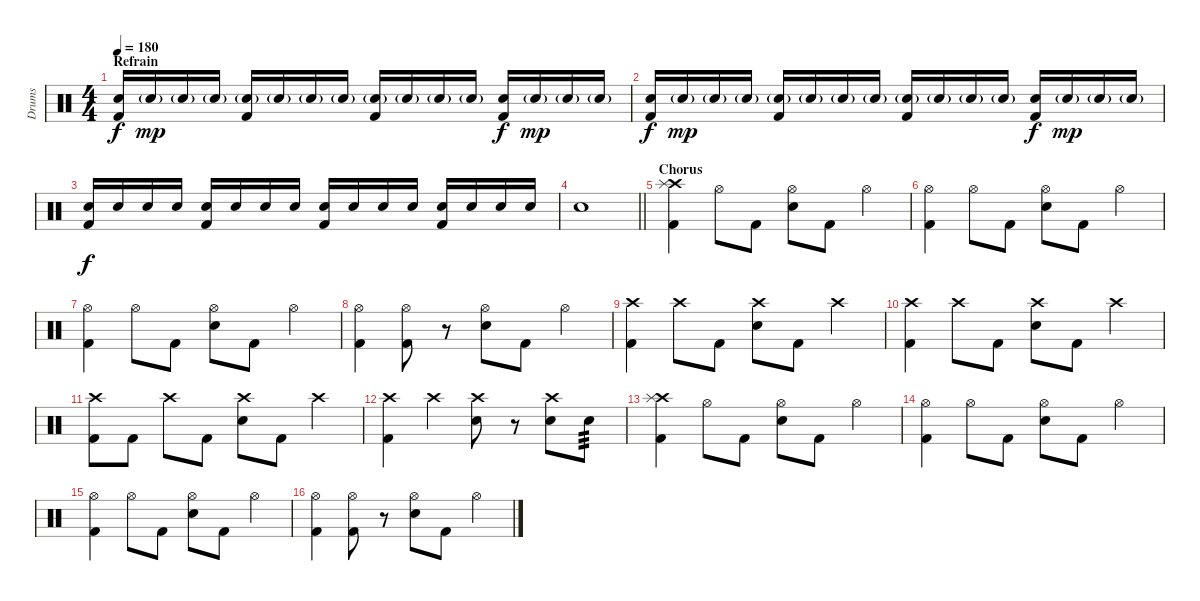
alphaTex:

\track ("Drums" "Drums") {instrument percussion}
\staff {score}
\articulation defaults
\ts (4 4)
\section ("" "Refrain")
\tempo 180
\clef neutral
\ks c
("Electric Snare (hit)" "Kick (hit) 2").16{dy f} "Electric Snare (hit)"{g}.16{dy mp} "Electric Snare (hit)"{g}.16 "Electric Snare (hit)"{g}.16 ("Electric Snare (hit)"{g} "Kick (hit) 2").16 "Electric Snare (hit)"{g}.16 "Electric Snare (hit)"{g}.16 "Electric Snare (hit)"{g}.16 ("Electric Snare (hit)"{g} "Kick (hit) 2").16 "Electric Snare (hit)"{g}.16 "Electric Snare (hit)"{g}.16 "Electric Snare (hit)"{g}.16 ("Electric Snare (hit)" "Kick (hit) 2").16{dy f} "Electric Snare (hit)"{g}.16{dy mp} "Electric Snare (hit)"{g}.16 "Electric Snare (hit)"{g}.16 |
("Electric Snare (hit)" "Kick (hit) 2").16{dy f} "Electric Snare (hit)"{g}.16{dy mp} "Electric Snare (hit)"{g}.16 "Electric Snare (hit)"{g}.16 ("Electric Snare (hit)"{g} "Kick (hit) 2").16 "Electric Snare (hit)"{g}.16 "Electric Snare (hit)"{g}.16 "Electric Snare (hit)"{g}.16 ("Electric Snare (hit)"{g} "Kick (hit) 2").16 "Electric Snare (hit)"{g}.16 "Electric Snare (hit)"{g}.16 "Electric Snare (hit)"{g}.16 ("Electric Snare (hit)" "Kick (hit) 2").16{dy f} "Electric Snare (hit)"{g}.16{dy mp} "Electric Snare (hit)"{g}.16 "Electric Snare (hit)"{g}.16 |
("Electric Snare (hit)" "Kick (hit) 2").16{dy f} "Electric Snare (hit)".16 "Electric Snare (hit)".16 "Electric Snare (hit)".16 ("Electric Snare (hit)" "Kick (hit) 2").16 "Electric Snare (hit)".16 "Electric Snare (hit)".16 "Electric Snare (hit)".16 ("Electric Snare (hit)" "Kick (hit) 2").16 "Electric Snare (hit)".16 "Electric Snare (hit)".16 "Electric Snare (hit)".16 ("Electric Snare (hit)" "Kick (hit) 2").16 "Electric Snare (hit)".16 "Electric Snare (hit)".16 "Electric Snare (hit)".16 |
\barLineRight lightlight "Electric Snare (hit)".1
|
\section ("" "Chorus")
("Crash high (hit)" "Splash (hit)" "Kick (hit) 2").4 "Hi-Hat (open)".8 "Kick (hit) 2".8 ("Electric Snare (hit)" "Hi-Hat (open)").8 "Kick (hit) 2".8 "Hi-Hat (open)".4 |
("Hi-Hat (open)" "Kick (hit) 2").4 "Hi-Hat (open)".8 "Kick (hit) 2".8 ("Electric Snare (hit)" "Hi-Hat (open)").8 "Kick (hit) 2".8 "Hi-Hat (open)".4 |
("Hi-Hat (open)" "Kick (hit) 2").4 "Hi-Hat (open)".8 "Kick (hit) 2".8 ("Electric Snare (hit)" "Hi-Hat (open)").8 "Kick (hit) 2".8 "Hi-Hat (open)".4 |
("Hi-Hat (open)" "Kick (hit) 2").4 ("Hi-Hat (open)" "Kick (hit) 2").8 r.8 ("Electric Snare (hit)" "Hi-Hat (open)").8 "Kick (hit) 2".8 "Hi-Hat (open)".4 |
("Crash high (hit)" "Kick (hit) 2").4 "Crash high (hit)".8 "Kick (hit) 2".8 ("Electric Snare (hit)" "Crash high (hit)").8 "Kick (hit) 2".8 "Crash high (hit)".4 |
("Crash high (hit)" "Kick (hit) 2").4 "Crash high (hit)".8 "Kick (hit) 2".8 ("Electric Snare (hit)" "Crash high (hit)").8 "Kick (hit) 2".8 "Crash high (hit)".4 |
("Crash high (hit)" "Kick (hit) 2").8 "Kick (hit) 2".8 "Crash high (hit)".8 "Kick (hit) 2".8 ("Electric Snare (hit)" "Crash high (hit)").8 "Kick (hit) 2".8 "Crash high (hit)".4 |
("Crash high (hit)" "Kick (hit) 2").4 "Crash high (hit)".4 ("Electric Snare (hit)" "Crash high (hit)").8 r.8 ("Electric Snare (hit)" "Crash high (hit)").8 "Electric Snare (hit)".8{tp 3} |
("Crash high (hit)" "Splash (hit)" "Kick (hit) 2").4 "Hi-Hat (open)".8 "Kick (hit) 2".8 ("Electric Snare (hit)" "Hi-Hat (open)").8 "Kick (hit) 2".8 "Hi-Hat (open)".4 |
("Hi-Hat (open)" "Kick (hit) 2").4 "Hi-Hat (open)".8 "Kick (hit) 2".8 ("Electric Snare (hit)" "Hi-Hat (open)").8 "Kick (hit) 2".8 "Hi-Hat (open)".4 |
("Hi-Hat (open)" "Kick (hit) 2").4 "Hi-Hat (open)".8 "Kick (hit) 2".8 ("Electric Snare (hit)" "Hi-Hat (open)").8 "Kick (hit) 2".8 "Hi-Hat (open)".4 |
("Hi-Hat (open)" "Kick (hit) 2").4 ("Hi-Hat (open)" "Kick (hit) 2").8 r.8 ("Electric Snare (hit)" "Hi-Hat (open)").8 "Kick (hit) 2".8 "Hi-Hat (open)".4
